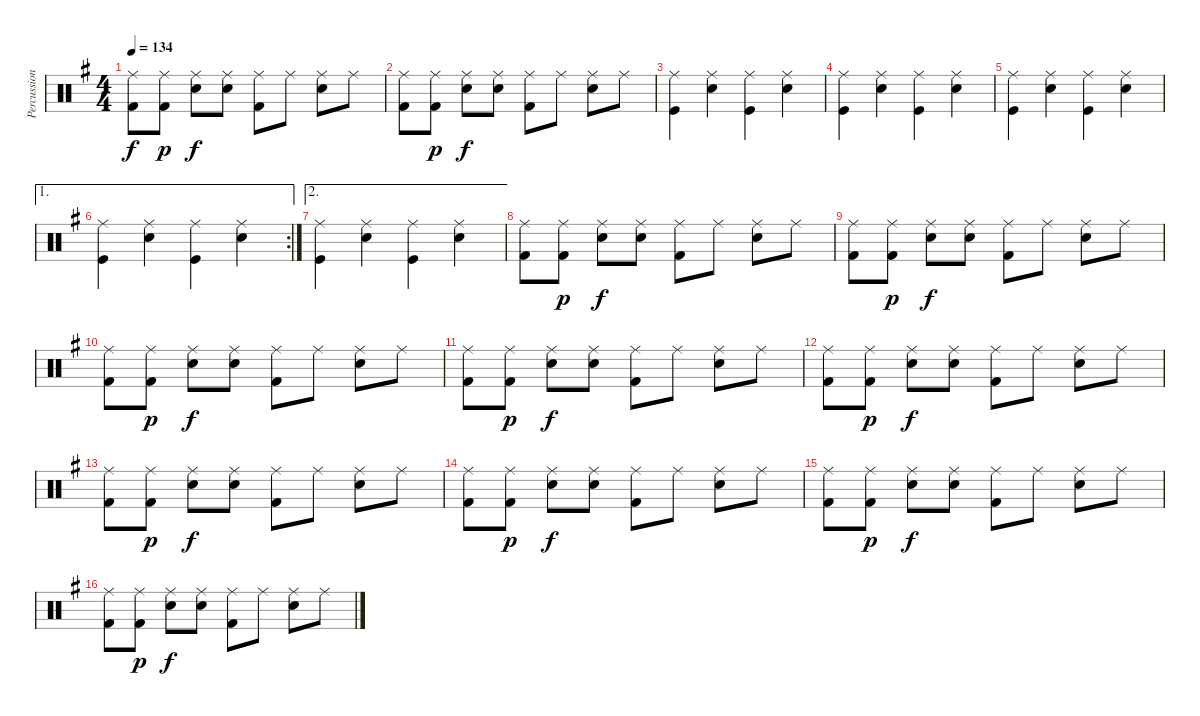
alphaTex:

\track ("Percussions" "Percussion") {instrument percussion}
\staff {score}
\articulation defaults
\ts (4 4)
\tempo 134
\clef neutral
\ks g
("Ride (middle)" "Kick (hit) 2").8{dy f} ("Ride (middle)" "Kick (hit) 2").8{dy p} ("Ride (middle)" "Snare (hit) 2").8{dy f} ("Ride (middle)" "Snare (hit) 2").8 ("Ride (middle)" "Kick (hit) 2").8 "Ride (middle)".8 ("Ride (middle)" "Snare (hit) 2").8 "Ride (middle)".8 |
("Ride (middle)" "Kick (hit) 2").8 ("Ride (middle)" "Kick (hit) 2").8{dy p} ("Ride (middle)" "Snare (hit) 2").8{dy f} ("Ride (middle)" "Snare (hit) 2").8 ("Ride (middle)" "Kick (hit) 2").8 "Ride (middle)".8 ("Ride (middle)" "Snare (hit) 2").8 "Ride (middle)".8 |
("Ride (middle)" "Kick (hit)").4 ("Ride (middle)" "Snare (hit) 2").4 ("Ride (middle)" "Kick (hit)").4 ("Ride (middle)" "Snare (hit) 2").4 |
("Ride (middle)" "Kick (hit)").4 ("Ride (middle)" "Snare (hit) 2").4 ("Ride (middle)" "Kick (hit)").4 ("Ride (middle)" "Snare (hit) 2").4 |
("Ride (middle)" "Kick (hit)").4 ("Ride (middle)" "Snare (hit) 2").4 ("Ride (middle)" "Kick (hit)").4 ("Ride (middle)" "Snare (hit) 2").4 |
\ae 1
\rc 2
("Ride (middle)" "Kick (hit)").4 ("Ride (middle)" "Snare (hit) 2").4 ("Ride (middle)" "Kick (hit)").4 ("Ride (middle)" "Snare (hit) 2").4 |
\ae 2
("Ride (middle)" "Kick (hit)").4 ("Ride (middle)" "Snare (hit) 2").4 ("Ride (middle)" "Kick (hit)").4 ("Ride (middle)" "Snare (hit) 2").4 |
("Ride (middle)" "Kick (hit) 2").8 ("Ride (middle)" "Kick (hit) 2").8{dy p} ("Ride (middle)" "Snare (hit) 2").8{dy f} ("Ride (middle)" "Snare (hit) 2").8 ("Ride (middle)" "Kick (hit) 2").8 "Ride (middle)".8 ("Ride (middle)" "Snare (hit) 2").8 "Ride (middle)".8 |
("Ride (middle)" "Kick (hit) 2").8 ("Ride (middle)" "Kick (hit) 2").8{dy p} ("Ride (middle)" "Snare (hit) 2").8{dy f} ("Ride (middle)" "Snare (hit) 2").8 ("Ride (middle)" "Kick (hit) 2").8 "Ride (middle)".8 ("Ride (middle)" "Snare (hit) 2").8 "Ride (middle)".8 |
("Ride (middle)" "Kick (hit) 2").8 ("Ride (middle)" "Kick (hit) 2").8{dy p} ("Ride (middle)" "Snare (hit) 2").8{dy f} ("Ride (middle)" "Snare (hit) 2").8 ("Ride (middle)" "Kick (hit) 2").8 "Ride (middle)".8 ("Ride (middle)" "Snare (hit) 2").8 "Ride (middle)".8 |
("Ride (middle)" "Kick (hit) 2").8 ("Ride (middle)" "Kick (hit) 2").8{dy p} ("Ride (middle)" "Snare (hit) 2").8{dy f} ("Ride (middle)" "Snare (hit) 2").8 ("Ride (middle)" "Kick (hit) 2").8 "Ride (middle)".8 ("Ride (middle)" "Snare (hit) 2").8 "Ride (middle)".8 |
("Ride (middle)" "Kick (hit) 2").8 ("Ride (middle)" "Kick (hit) 2").8{dy p} ("Ride (middle)" "Snare (hit) 2").8{dy f} ("Ride (middle)" "Snare (hit) 2").8 ("Ride (middle)" "Kick (hit) 2").8 "Ride (middle)".8 ("Ride (middle)" "Snare (hit) 2").8 "Ride (middle)".8 |
("Ride (middle)" "Kick (hit) 2").8 ("Ride (middle)" "Kick (hit) 2").8{dy p} ("Ride (middle)" "Snare (hit) 2").8{dy f} ("Ride (middle)" "Snare (hit) 2").8 ("Ride (middle)" "Kick (hit) 2").8 "Ride (middle)".8 ("Ride (middle)" "Snare (hit) 2").8 "Ride (middle)".8 |
("Ride (middle)" "Kick (hit) 2").8 ("Ride (middle)" "Kick (hit) 2").8{dy p} ("Ride (middle)" "Snare (hit) 2").8{dy f} ("Ride (middle)" "Snare (hit) 2").8 ("Ride (middle)" "Kick (hit) 2").8 "Ride (middle)".8 ("Ride (middle)" "Snare (hit) 2").8 "Ride (middle)".8 |
("Ride (middle)" "Kick (hit) 2").8 ("Ride (middle)" "Kick (hit) 2").8{dy p} ("Ride (middle)" "Snare (hit) 2").8{dy f} ("Ride (middle)" "Snare (hit) 2").8 ("Ride (middle)" "Kick (hit) 2").8 "Ride (middle)".8 ("Ride (middle)" "Snare (hit) 2").8 "Ride (middle)".8 |
("Ride (middle)" "Kick (hit) 2").8 ("Ride (middle)" "Kick (hit) 2").8{dy p} ("Ride (middle)" "Snare (hit) 2").8{dy f} ("Ride (middle)" "Snare (hit) 2").8 ("Ride (middle)" "Kick (hit) 2").8 "Ride (middle)".8 ("Ride (middle)" "Snare (hit) 2").8 "Ride (middle)".8
